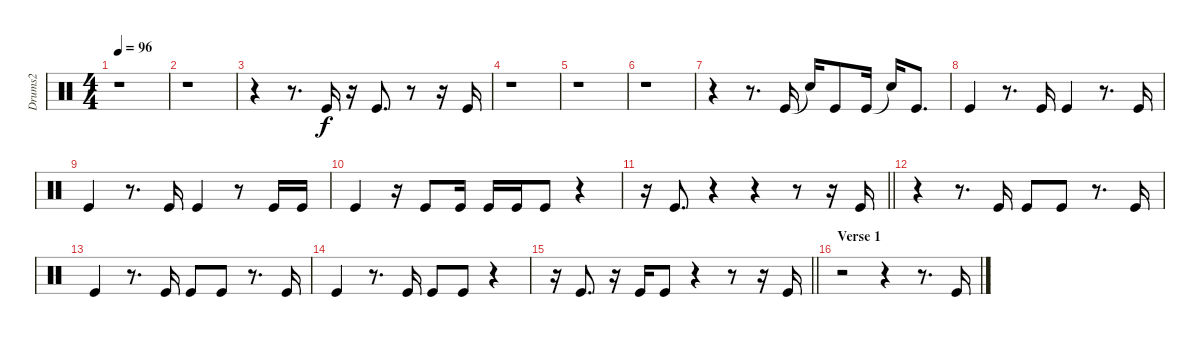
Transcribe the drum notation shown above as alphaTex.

\track ("Drums2" "Drums2") {instrument percussion}
\staff {score}
\articulation defaults
\ts (4 4)
\tempo 96
\clef neutral
\ks c
r.1{dy f} |
r.1 |
r.4 r.8{d} "Kick (hit)".16 r.16 "Kick (hit)".8{d} r.8 r.16 "Kick (hit)".16 |
r.1 |
r.1 |
r.1 |
r.4 r.8{d} "Kick (hit)".16 "Snare (hit)"{t}.16 "Kick (hit)".8 "Kick (hit)".16 "Snare (hit)"{t}.16 "Kick (hit)".8{d} |
"Kick (hit)".4 r.8{d} "Kick (hit)".16 "Kick (hit)".4 r.8{d} "Kick (hit)".16 |
"Kick (hit)".4 r.8{d} "Kick (hit)".16 "Kick (hit)".4 r.8 "Kick (hit)".16 "Kick (hit)".16 |
"Kick (hit)".4 r.16 "Kick (hit)".8 "Kick (hit)".16 "Kick (hit)".16 "Kick (hit)".16 "Kick (hit)".8 r.4 |
\barLineRight lightlight
r.16 "Kick (hit)".8{d} r.4 r.4 r.8 r.16 "Kick (hit)".16 |
r.4 r.8{d} "Kick (hit)".16 "Kick (hit)".8 "Kick (hit)".8 r.8{d} "Kick (hit)".16 |
"Kick (hit)".4 r.8{d} "Kick (hit)".16 "Kick (hit)".8 "Kick (hit)".8 r.8{d} "Kick (hit)".16 |
"Kick (hit)".4 r.8{d} "Kick (hit)".16 "Kick (hit)".8 "Kick (hit)".8 r.4 |
\barLineRight lightlight
r.16 "Kick (hit)".8{d} r.16 "Kick (hit)".16 "Kick (hit)".8 r.4 r.8 r.16 "Kick (hit)".16 |
\section ("" "Verse 1")
r.2 r.4 r.8{d} "Kick (hit)".16
